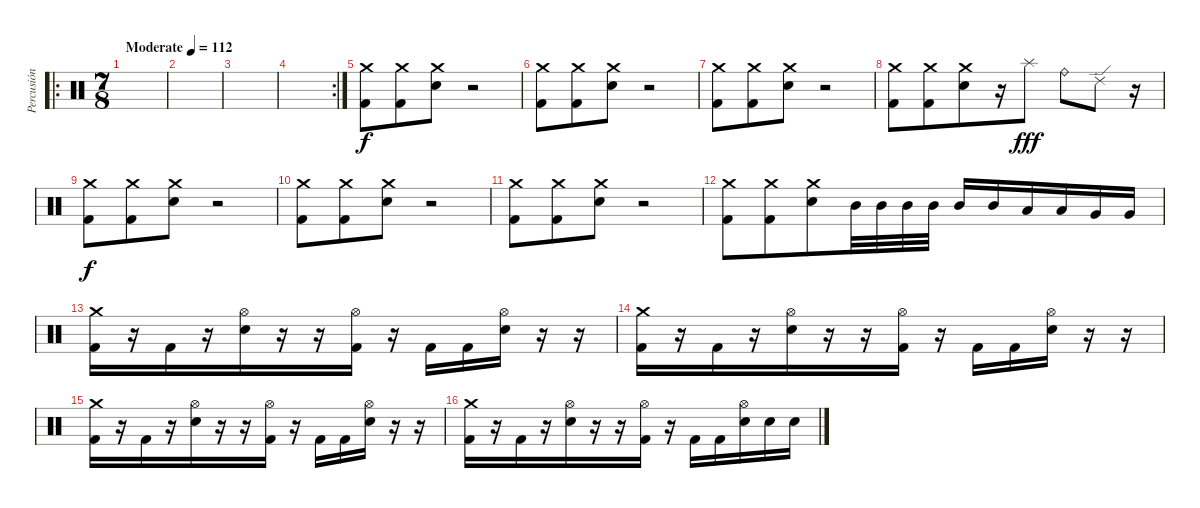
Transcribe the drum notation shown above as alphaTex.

\track ("Percusión" "Percusión") {instrument percussion}
\staff {score}
\articulation defaults
\ro
\ts (7 8)
\tempo (112 "Moderate")
\clef neutral
\ks c
|
|
|
\rc 2
|
("Crash medium (hit)" "Kick (hit) 2").8 ("Crash medium (hit)" "Kick (hit) 2").8 ("Crash medium (hit)" "Electric Snare (hit)").8 r.2 |
("Crash medium (hit)" "Kick (hit) 2").8 ("Crash medium (hit)" "Kick (hit) 2").8 ("Crash medium (hit)" "Electric Snare (hit)").8 r.2 |
("Crash medium (hit)" "Kick (hit) 2").8 ("Crash medium (hit)" "Kick (hit) 2").8 ("Crash medium (hit)" "Electric Snare (hit)").8 r.2 |
("Crash medium (hit)" "Kick (hit) 2").8 ("Crash medium (hit)" "Kick (hit) 2").8 ("Crash medium (hit)" "Electric Snare (hit)").8 r.16 "Splash (hit)".8{dy fff} "Ride (bell)".8 "Ride (edge) 2".8 r.16 |
("Crash medium (hit)" "Kick (hit) 2").8{dy f} ("Crash medium (hit)" "Kick (hit) 2").8 ("Crash medium (hit)" "Electric Snare (hit)").8 r.2 |
("Crash medium (hit)" "Kick (hit) 2").8 ("Crash medium (hit)" "Kick (hit) 2").8 ("Crash medium (hit)" "Electric Snare (hit)").8 r.2 |
("Crash medium (hit)" "Kick (hit) 2").8 ("Crash medium (hit)" "Kick (hit) 2").8 ("Crash medium (hit)" "Electric Snare (hit)").8 r.2 |
("Crash medium (hit)" "Kick (hit) 2").8 ("Crash medium (hit)" "Kick (hit) 2").8 ("Crash medium (hit)" "Electric Snare (hit)").8 "Mid Tom (hit)".32 "Mid Tom (hit)".32 "Mid Tom (hit)".32 "Mid Tom (hit)".32 "Mid Tom (hit)".16 "Mid Tom (hit)".16 "Low Tom (hit)".16 "Low Tom (hit)".16 "Very Low Tom (hit)".16 "Very Low Tom (hit)".16 |
("Crash medium (hit)" "Kick (hit) 2").16 r.16 "Kick (hit) 2".16 r.16 ("Hi-Hat (open)" "Electric Snare (hit)").16 r.16 r.16 ("Hi-Hat (open)" "Kick (hit) 2").16 r.16 "Kick (hit) 2".16 "Kick (hit) 2".16 ("Hi-Hat (open)" "Electric Snare (hit)").16 r.16 r.16 |
("Crash medium (hit)" "Kick (hit) 2").16 r.16 "Kick (hit) 2".16 r.16 ("Hi-Hat (open)" "Electric Snare (hit)").16 r.16 r.16 ("Hi-Hat (open)" "Kick (hit) 2").16 r.16 "Kick (hit) 2".16 "Kick (hit) 2".16 ("Hi-Hat (open)" "Electric Snare (hit)").16 r.16 r.16 |
("Crash medium (hit)" "Kick (hit) 2").16 r.16 "Kick (hit) 2".16 r.16 ("Hi-Hat (open)" "Electric Snare (hit)").16 r.16 r.16 ("Hi-Hat (open)" "Kick (hit) 2").16 r.16 "Kick (hit) 2".16 "Kick (hit) 2".16 ("Hi-Hat (open)" "Electric Snare (hit)").16 r.16 r.16 |
("Crash medium (hit)" "Kick (hit) 2").16 r.16 "Kick (hit) 2".16 r.16 ("Hi-Hat (open)" "Electric Snare (hit)").16 r.16 r.16 ("Hi-Hat (open)" "Kick (hit) 2").16 r.16 "Kick (hit) 2".16 "Kick (hit) 2".16 ("Hi-Hat (open)" "Electric Snare (hit)").16 "Electric Snare (hit)".16 "Electric Snare (hit)".16
